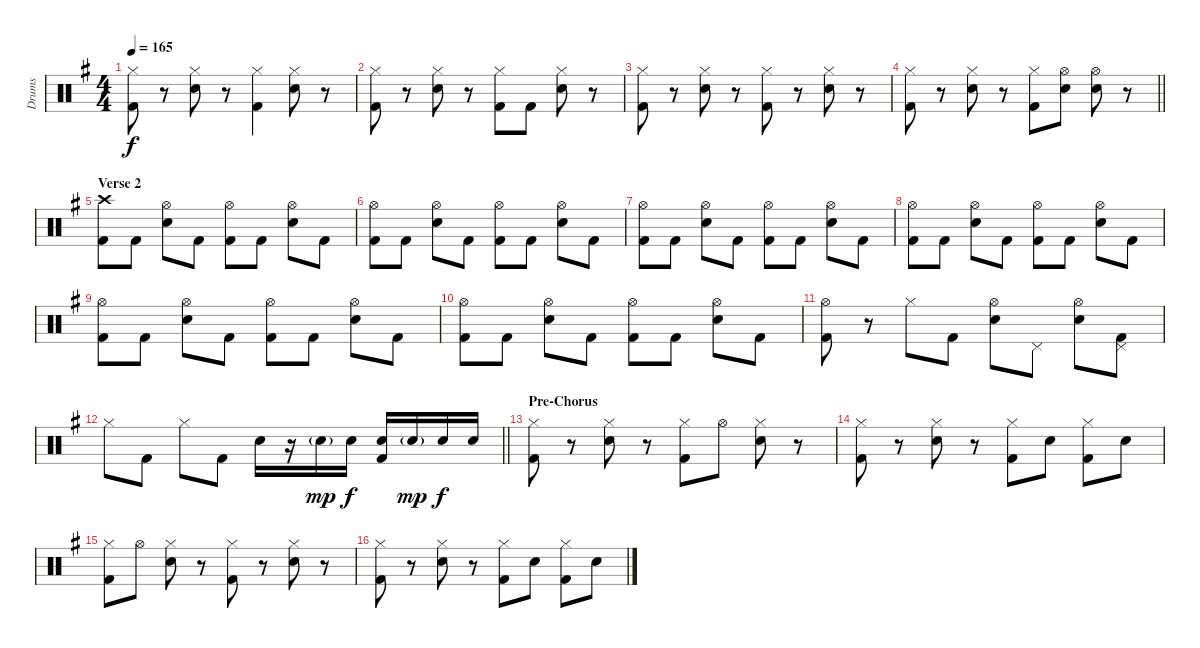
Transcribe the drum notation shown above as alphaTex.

\track ("Drums" "Drums") {instrument percussion}
\staff {score}
\articulation defaults
\ts (4 4)
\tempo 165
\clef neutral
\ks eminor
("Hi-Hat (closed)" "Kick (hit) 2").8{dy f} r.8 ("Hi-Hat (closed)" "Electric Snare (hit)").8 r.8 ("Hi-Hat (closed)" "Kick (hit) 2").4 ("Hi-Hat (closed)" "Electric Snare (hit)").8 r.8 |
("Hi-Hat (closed)" "Kick (hit) 2").8 r.8 ("Hi-Hat (closed)" "Electric Snare (hit)").8 r.8 ("Hi-Hat (closed)" "Kick (hit) 2").8 "Kick (hit) 2".8 ("Hi-Hat (closed)" "Electric Snare (hit)").8 r.8 |
("Hi-Hat (closed)" "Kick (hit) 2").8 r.8 ("Hi-Hat (closed)" "Electric Snare (hit)").8 r.8 ("Hi-Hat (closed)" "Kick (hit) 2").8 r.8 ("Hi-Hat (closed)" "Electric Snare (hit)").8 r.8 |
\barLineRight lightlight
("Hi-Hat (closed)" "Kick (hit) 2").8 r.8 ("Hi-Hat (closed)" "Electric Snare (hit)").8 r.8 ("Hi-Hat (closed)" "Kick (hit) 2").8 ("Hi-Hat (open)" "Electric Snare (hit)").8 ("Hi-Hat (open)" "Electric Snare (hit)").8 r.8 |
\section ("" "Verse 2")
("Crash high (hit)" "Kick (hit) 2").8 "Kick (hit) 2".8 ("Hi-Hat (open)" "Electric Snare (hit)").8 "Kick (hit) 2".8 ("Hi-Hat (open)" "Kick (hit) 2").8 "Kick (hit) 2".8 ("Hi-Hat (open)" "Electric Snare (hit)").8 "Kick (hit) 2".8 |
("Hi-Hat (open)" "Kick (hit) 2").8 "Kick (hit) 2".8 ("Hi-Hat (open)" "Electric Snare (hit)").8 "Kick (hit) 2".8 ("Hi-Hat (open)" "Kick (hit) 2").8 "Kick (hit) 2".8 ("Hi-Hat (open)" "Electric Snare (hit)").8 "Kick (hit) 2".8 |
("Hi-Hat (open)" "Kick (hit) 2").8 "Kick (hit) 2".8 ("Hi-Hat (open)" "Electric Snare (hit)").8 "Kick (hit) 2".8 ("Hi-Hat (open)" "Kick (hit) 2").8 "Kick (hit) 2".8 ("Hi-Hat (open)" "Electric Snare (hit)").8 "Kick (hit) 2".8 |
("Hi-Hat (open)" "Kick (hit) 2").8 "Kick (hit) 2".8 ("Hi-Hat (open)" "Electric Snare (hit)").8 "Kick (hit) 2".8 ("Hi-Hat (open)" "Kick (hit) 2").8 "Kick (hit) 2".8 ("Hi-Hat (open)" "Electric Snare (hit)").8 "Kick (hit) 2".8 |
("Hi-Hat (open)" "Kick (hit) 2").8 "Kick (hit) 2".8 ("Hi-Hat (open)" "Electric Snare (hit)").8 "Kick (hit) 2".8 ("Hi-Hat (open)" "Kick (hit) 2").8 "Kick (hit) 2".8 ("Hi-Hat (open)" "Electric Snare (hit)").8 "Kick (hit) 2".8 |
("Hi-Hat (open)" "Kick (hit) 2").8 "Kick (hit) 2".8 ("Hi-Hat (open)" "Electric Snare (hit)").8 "Kick (hit) 2".8 ("Hi-Hat (open)" "Kick (hit) 2").8 "Kick (hit) 2".8 ("Hi-Hat (open)" "Electric Snare (hit)").8 "Kick (hit) 2".8 |
("Hi-Hat (open)" "Kick (hit) 2").8 r.8 "Hi-Hat (closed)".8 "Kick (hit) 2".8 ("Hi-Hat (open)" "Electric Snare (hit)").8 "Pedal Hi-Hat (hit)".8 ("Hi-Hat (open)" "Electric Snare (hit)").8 ("Pedal Hi-Hat (hit)" "Kick (hit) 2").8 |
\barLineRight lightlight "Hi-Hat (closed)".8 "Kick (hit) 2".8 "Hi-Hat (closed)".8 "Kick (hit) 2".8 "Electric Snare (hit)".16
r.16 "Electric Snare (hit)"{g}.16{dy mp} "Electric Snare (hit)".16{dy f} ("Electric Snare (hit)" "Kick (hit) 2").16 "Electric Snare (hit)"{g}.16{dy mp} "Electric Snare (hit)".16{dy f} "Electric Snare (hit)".16 |
\section ("" "Pre-Chorus")
("Hi-Hat (closed)" "Kick (hit) 2").8 r.8 ("Hi-Hat (closed)" "Electric Snare (hit)").8 r.8 ("Hi-Hat (closed)" "Kick (hit) 2").8 "Hi-Hat (open)".8 ("Hi-Hat (closed)" "Electric Snare (hit)").8 r.8 |
("Hi-Hat (closed)" "Kick (hit) 2").8 r.8 ("Hi-Hat (closed)" "Electric Snare (hit)").8 r.8 ("Hi-Hat (closed)" "Kick (hit) 2").8 "Electric Snare (hit)".8 ("Hi-Hat (closed)" "Kick (hit) 2").8 "Electric Snare (hit)".8 |
("Hi-Hat (closed)" "Kick (hit) 2").8 "Hi-Hat (open)".8 ("Hi-Hat (closed)" "Electric Snare (hit)").8 r.8 ("Hi-Hat (closed)" "Kick (hit) 2").8 r.8 ("Hi-Hat (closed)" "Electric Snare (hit)").8 r.8 |
("Hi-Hat (closed)" "Kick (hit) 2").8 r.8 ("Hi-Hat (closed)" "Electric Snare (hit)").8 r.8 ("Hi-Hat (closed)" "Kick (hit) 2").8 "Electric Snare (hit)".8 ("Hi-Hat (closed)" "Kick (hit) 2").8 "Electric Snare (hit)".8
